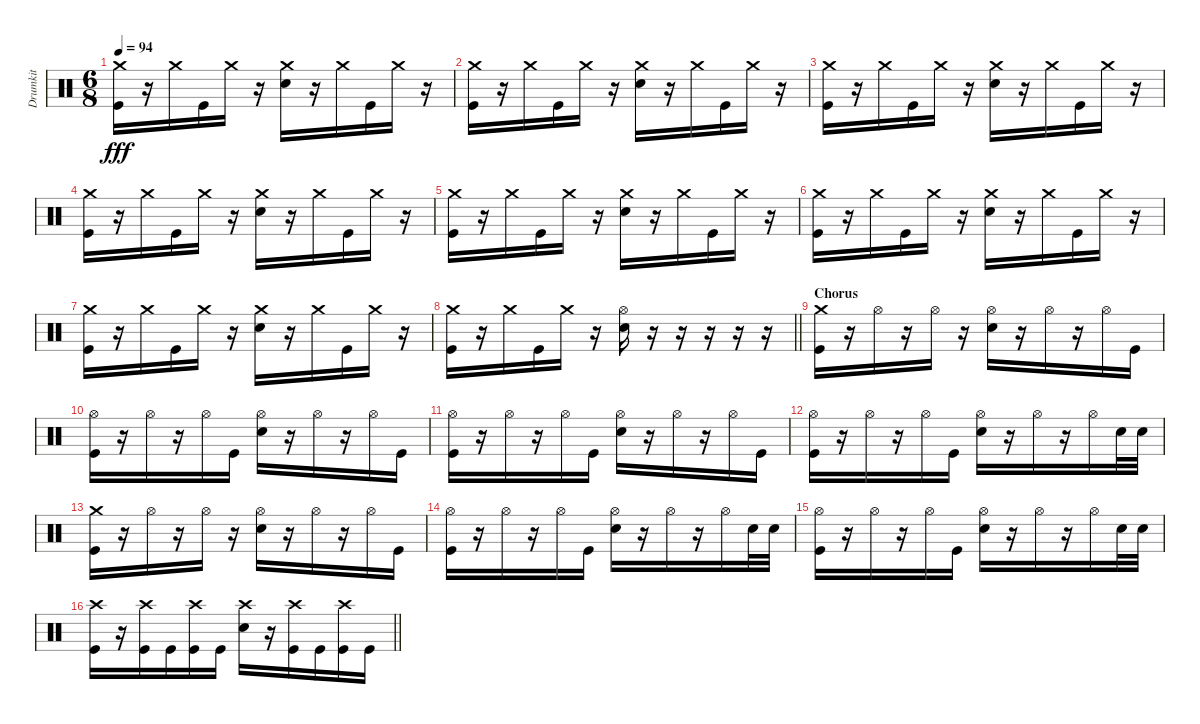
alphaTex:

\track ("Drumkit" "Drumkit") {instrument percussion}
\staff {score}
\articulation defaults
\ts (6 8)
\tempo 94
\clef neutral
\ks c
("Crash medium (hit)" "Kick (hit)").16{dy fff} r.16 "Crash medium (hit)".16 "Kick (hit)".16 "Crash medium (hit)".16 r.16 ("Crash medium (hit)" "Snare (hit) 2").16 r.16 "Crash medium (hit)".16 "Kick (hit)".16 "Crash medium (hit)".16 r.16 |
("Crash medium (hit)" "Kick (hit)").16 r.16 "Crash medium (hit)".16 "Kick (hit)".16 "Crash medium (hit)".16 r.16 ("Crash medium (hit)" "Snare (hit) 2").16 r.16 "Crash medium (hit)".16 "Kick (hit)".16 "Crash medium (hit)".16 r.16 |
("Crash medium (hit)" "Kick (hit)").16 r.16 "Crash medium (hit)".16 "Kick (hit)".16 "Crash medium (hit)".16 r.16 ("Crash medium (hit)" "Snare (hit) 2").16 r.16 "Crash medium (hit)".16 "Kick (hit)".16 "Crash medium (hit)".16 r.16 |
("Crash medium (hit)" "Kick (hit)").16 r.16 "Crash medium (hit)".16 "Kick (hit)".16 "Crash medium (hit)".16 r.16 ("Crash medium (hit)" "Snare (hit) 2").16 r.16 "Crash medium (hit)".16 "Kick (hit)".16 "Crash medium (hit)".16 r.16 |
("Crash medium (hit)" "Kick (hit)").16 r.16 "Crash medium (hit)".16 "Kick (hit)".16 "Crash medium (hit)".16 r.16 ("Crash medium (hit)" "Snare (hit) 2").16 r.16 "Crash medium (hit)".16 "Kick (hit)".16 "Crash medium (hit)".16 r.16 |
("Crash medium (hit)" "Kick (hit)").16 r.16 "Crash medium (hit)".16 "Kick (hit)".16 "Crash medium (hit)".16 r.16 ("Crash medium (hit)" "Snare (hit) 2").16 r.16 "Crash medium (hit)".16 "Kick (hit)".16 "Crash medium (hit)".16 r.16 |
("Crash medium (hit)" "Kick (hit)").16 r.16 "Crash medium (hit)".16 "Kick (hit)".16 "Crash medium (hit)".16 r.16 ("Crash medium (hit)" "Snare (hit) 2").16 r.16 "Crash medium (hit)".16 "Kick (hit)".16 "Crash medium (hit)".16 r.16 |
\barLineRight lightlight
("Crash medium (hit)" "Kick (hit)").16 r.16 "Crash medium (hit)".16 "Kick (hit)".16 "Crash medium (hit)".16 r.16 ("Hi-Hat (open)" "Snare (hit) 2").16 r.16 r.16 r.16 r.16 r.16 |
\section ("" "Chorus")
("Crash medium (hit)" "Kick (hit)").16 r.16 "Hi-Hat (open)".16 r.16 "Hi-Hat (open)".16 r.16 ("Hi-Hat (open)" "Snare (hit) 2").16 r.16 "Hi-Hat (open)".16 r.16 "Hi-Hat (open)".16 "Kick (hit)".16 |
("Hi-Hat (open)" "Kick (hit)").16 r.16 "Hi-Hat (open)".16 r.16 "Hi-Hat (open)".16 "Kick (hit)".16 ("Hi-Hat (open)" "Snare (hit) 2").16 r.16 "Hi-Hat (open)".16 r.16 "Hi-Hat (open)".16 "Kick (hit)".16 |
("Hi-Hat (open)" "Kick (hit)").16 r.16 "Hi-Hat (open)".16 r.16 "Hi-Hat (open)".16 "Kick (hit)".16 ("Hi-Hat (open)" "Snare (hit) 2").16 r.16 "Hi-Hat (open)".16 r.16 "Hi-Hat (open)".16 "Kick (hit)".16 |
("Hi-Hat (open)" "Kick (hit)").16 r.16 "Hi-Hat (open)".16 r.16 "Hi-Hat (open)".16 "Kick (hit)".16 ("Hi-Hat (open)" "Snare (hit) 2").16 r.16 "Hi-Hat (open)".16 r.16 "Hi-Hat (open)".16 "Snare (hit) 2".32 "Snare (hit) 2".32 |
("Crash medium (hit)" "Kick (hit)").16 r.16 "Hi-Hat (open)".16 r.16 "Hi-Hat (open)".16 r.16 ("Hi-Hat (open)" "Snare (hit) 2").16 r.16 "Hi-Hat (open)".16 r.16 "Hi-Hat (open)".16 "Kick (hit)".16 |
("Hi-Hat (open)" "Kick (hit)").16 r.16 "Hi-Hat (open)".16 r.16 "Hi-Hat (open)".16 "Kick (hit)".16 ("Hi-Hat (open)" "Snare (hit) 2").16 r.16 "Hi-Hat (open)".16 r.16 "Hi-Hat (open)".16 "Snare (hit) 2".32 "Snare (hit) 2".32 |
("Hi-Hat (open)" "Kick (hit)").16 r.16 "Hi-Hat (open)".16 r.16 "Hi-Hat (open)".16 "Kick (hit)".16 ("Hi-Hat (open)" "Snare (hit) 2").16 r.16 "Hi-Hat (open)".16 r.16 "Hi-Hat (open)".16 "Snare (hit) 2".32 "Snare (hit) 2".32 |
\barLineRight lightlight
("Crash high (hit)" "Kick (hit)").16 r.16 ("Crash high (hit)" "Kick (hit)").16 "Kick (hit)".16 ("Crash high (hit)" "Kick (hit)").16 "Kick (hit)".16 ("Crash high (hit)" "Snare (hit) 2").16 r.16 ("Crash high (hit)" "Kick (hit)").16 "Kick (hit)".16 ("Crash high (hit)" "Kick (hit)").16 "Kick (hit)".16
